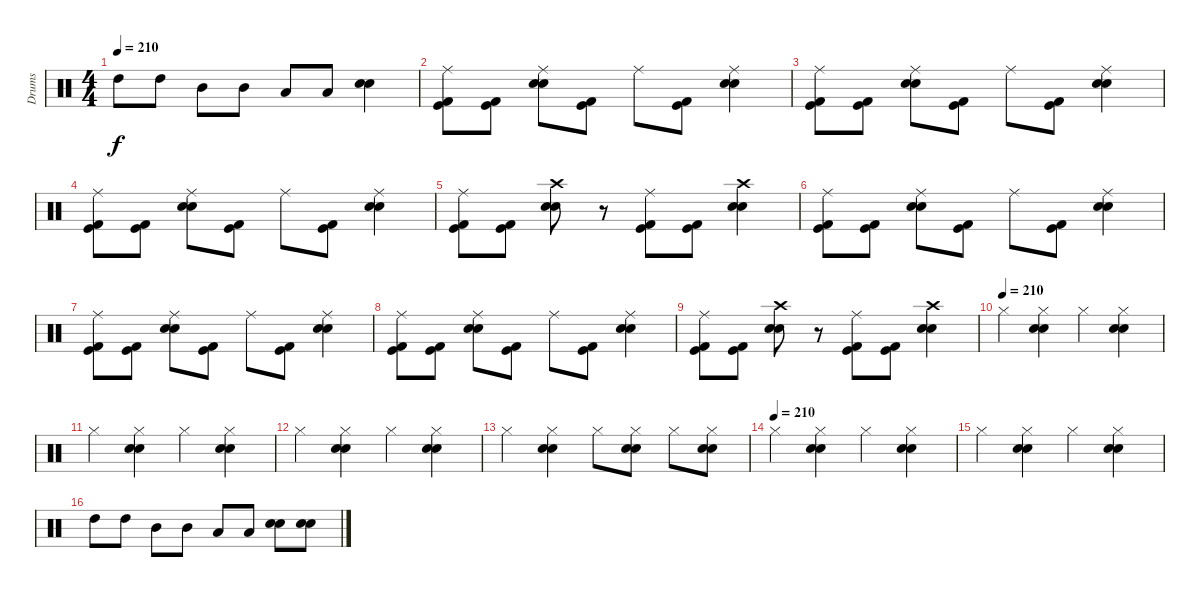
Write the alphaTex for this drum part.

\track ("Drums" "Drums") {instrument percussion}
\staff {score}
\articulation defaults
\ts (4 4)
\tempo 210
\clef neutral
\ks c "High Tom (hit)".8{dy f} "High Tom (hit)".8 "Mid Tom (hit)".8 "Mid Tom (hit)".8 "Low Tom (hit)".8 "Low Tom (hit)".8
("Electric Snare (hit)" "Snare (hit) 2").4 |
("Ride (middle)" "Kick (hit) 2" "Kick (hit)").8 ("Kick (hit) 2" "Kick (hit)").8 ("Ride (middle)" "Electric Snare (hit)" "Snare (hit) 2").8 ("Kick (hit) 2" "Kick (hit)").8 "Ride (middle)".8 ("Kick (hit) 2" "Kick (hit)").8 ("Ride (middle)" "Electric Snare (hit)" "Snare (hit) 2").4 |
("Ride (middle)" "Kick (hit) 2" "Kick (hit)").8 ("Kick (hit) 2" "Kick (hit)").8 ("Ride (middle)" "Electric Snare (hit)" "Snare (hit) 2").8 ("Kick (hit) 2" "Kick (hit)").8 "Ride (middle)".8 ("Kick (hit) 2" "Kick (hit)").8 ("Ride (middle)" "Electric Snare (hit)" "Snare (hit) 2").4 |
("Ride (middle)" "Kick (hit) 2" "Kick (hit)").8 ("Kick (hit) 2" "Kick (hit)").8 ("Ride (middle)" "Electric Snare (hit)" "Snare (hit) 2").8 ("Kick (hit) 2" "Kick (hit)").8 "Ride (middle)".8 ("Kick (hit) 2" "Kick (hit)").8 ("Ride (middle)" "Electric Snare (hit)" "Snare (hit) 2").4 |
("Ride (middle)" "Kick (hit) 2" "Kick (hit)").8 ("Kick (hit) 2" "Kick (hit)").8 ("Crash high (hit)" "Electric Snare (hit)" "Snare (hit) 2").8 r.8 ("Ride (middle)" "Kick (hit) 2" "Kick (hit)").8 ("Kick (hit) 2" "Kick (hit)").8 ("Crash high (hit)" "Electric Snare (hit)" "Snare (hit) 2").4 |
("Ride (middle)" "Kick (hit) 2" "Kick (hit)").8 ("Kick (hit) 2" "Kick (hit)").8 ("Ride (middle)" "Electric Snare (hit)" "Snare (hit) 2").8 ("Kick (hit) 2" "Kick (hit)").8 "Ride (middle)".8 ("Kick (hit) 2" "Kick (hit)").8 ("Ride (middle)" "Electric Snare (hit)" "Snare (hit) 2").4 |
("Ride (middle)" "Kick (hit) 2" "Kick (hit)").8 ("Kick (hit) 2" "Kick (hit)").8 ("Ride (middle)" "Electric Snare (hit)" "Snare (hit) 2").8 ("Kick (hit) 2" "Kick (hit)").8 "Ride (middle)".8 ("Kick (hit) 2" "Kick (hit)").8 ("Ride (middle)" "Electric Snare (hit)" "Snare (hit) 2").4 |
("Ride (middle)" "Kick (hit) 2" "Kick (hit)").8 ("Kick (hit) 2" "Kick (hit)").8 ("Ride (middle)" "Electric Snare (hit)" "Snare (hit) 2").8 ("Kick (hit) 2" "Kick (hit)").8 "Ride (middle)".8 ("Kick (hit) 2" "Kick (hit)").8 ("Ride (middle)" "Electric Snare (hit)" "Snare (hit) 2").4 |
("Ride (middle)" "Kick (hit) 2" "Kick (hit)").8 ("Kick (hit) 2" "Kick (hit)").8 ("Crash high (hit)" "Electric Snare (hit)" "Snare (hit) 2").8 r.8 ("Ride (middle)" "Kick (hit) 2" "Kick (hit)").8 ("Kick (hit) 2" "Kick (hit)").8 ("Crash high (hit)" "Electric Snare (hit)" "Snare (hit) 2").4 |
\tempo (210)
"Hi-Hat (closed)".4 ("Hi-Hat (closed)" "Electric Snare (hit)" "Snare (hit) 2").4 "Hi-Hat (closed)".4 ("Hi-Hat (closed)" "Electric Snare (hit)" "Snare (hit) 2").4 |
"Hi-Hat (closed)".4 ("Hi-Hat (closed)" "Electric Snare (hit)" "Snare (hit) 2").4 "Hi-Hat (closed)".4 ("Hi-Hat (closed)" "Electric Snare (hit)" "Snare (hit) 2").4 |
"Hi-Hat (closed)".4 ("Hi-Hat (closed)" "Electric Snare (hit)" "Snare (hit) 2").4 "Hi-Hat (closed)".4 ("Hi-Hat (closed)" "Electric Snare (hit)" "Snare (hit) 2").4 |
"Hi-Hat (closed)".4 ("Hi-Hat (closed)" "Electric Snare (hit)" "Snare (hit) 2").4 "Hi-Hat (closed)".8 ("Hi-Hat (closed)" "Electric Snare (hit)" "Snare (hit) 2").8 "Hi-Hat (closed)".8 ("Hi-Hat (closed)" "Electric Snare (hit)" "Snare (hit) 2").8 |
\tempo (210)
"Hi-Hat (closed)".4 ("Hi-Hat (closed)" "Electric Snare (hit)" "Snare (hit) 2").4 "Hi-Hat (closed)".4 ("Hi-Hat (closed)" "Electric Snare (hit)" "Snare (hit) 2").4 |
"Hi-Hat (closed)".4 ("Hi-Hat (closed)" "Electric Snare (hit)" "Snare (hit) 2").4 "Hi-Hat (closed)".4 ("Hi-Hat (closed)" "Electric Snare (hit)" "Snare (hit) 2").4 |
"High Tom (hit)".8 "High Tom (hit)".8 "Mid Tom (hit)".8 "Mid Tom (hit)".8 "Low Tom (hit)".8 "Low Tom (hit)".8 ("Electric Snare (hit)" "Snare (hit) 2").8 ("Electric Snare (hit)" "Snare (hit) 2").8
